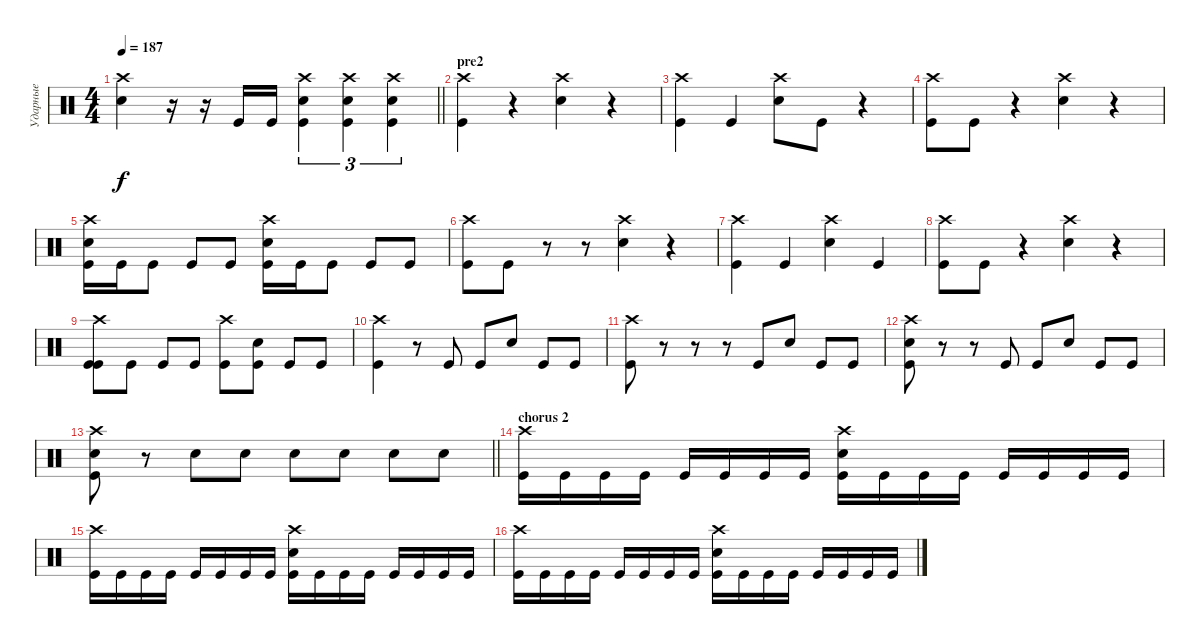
\track ("Ударные" "Ударные") {instrument percussion}
\staff {score}
\articulation defaults
\ts (4 4)
\tempo 187
\clef neutral
\barLineRight lightlight
\ks c
("Crash high (hit)" "Electric Snare (hit)").4{dy f} r.16 r.16 "Kick (hit)".16 "Kick (hit)".16 ("Crash high (hit)" "Electric Snare (hit)" "Kick (hit)").4{tu (3 2)} ("Crash high (hit)" "Electric Snare (hit)" "Kick (hit)").4{tu (3 2)} ("Crash high (hit)" "Electric Snare (hit)" "Kick (hit)").4{tu (3 2)} |
\section ("" "pre2")
("Crash high (hit)" "Kick (hit)").4 r.4 ("Crash high (hit)" "Electric Snare (hit)").4 r.4 |
("Crash high (hit)" "Kick (hit)").4 "Kick (hit)".4 ("Crash high (hit)" "Electric Snare (hit)").8 "Kick (hit)".8 r.4 |
("Crash high (hit)" "Kick (hit)").8 "Kick (hit)".8 r.4 ("Crash high (hit)" "Electric Snare (hit)").4 r.4 |
("Crash high (hit)" "Electric Snare (hit)" "Kick (hit)").16 "Kick (hit)".16 "Kick (hit)".8 "Kick (hit)".8 "Kick (hit)".8 ("Crash high (hit)" "Electric Snare (hit)" "Kick (hit)").16 "Kick (hit)".16 "Kick (hit)".8 "Kick (hit)".8 "Kick (hit)".8 |
("Crash high (hit)" "Kick (hit)").8 "Kick (hit)".8 r.8 r.8 ("Crash high (hit)" "Electric Snare (hit)").4 r.4 |
("Crash high (hit)" "Kick (hit)").4 "Kick (hit)".4 ("Crash high (hit)" "Electric Snare (hit)").4 "Kick (hit)".4 |
("Crash high (hit)" "Kick (hit)").8 "Kick (hit)".8 r.4 ("Crash high (hit)" "Electric Snare (hit)").4 r.4 |
("Crash high (hit)" "Kick (hit)" "Kick (hit)").8 "Kick (hit)".8 "Kick (hit)".8 "Kick (hit)".8 ("Crash high (hit)" "Kick (hit)").8 ("Electric Snare (hit)" "Kick (hit)").8 "Kick (hit)".8 "Kick (hit)".8 |
("Crash high (hit)" "Kick (hit)").4 r.8 "Kick (hit)".8 "Kick (hit)".8 "Electric Snare (hit)".8 "Kick (hit)".8 "Kick (hit)".8 |
("Crash high (hit)" "Kick (hit)").8 r.8 r.8 r.8 "Kick (hit)".8 "Electric Snare (hit)".8 "Kick (hit)".8 "Kick (hit)".8 |
("Crash high (hit)" "Electric Snare (hit)" "Kick (hit)").8 r.8 r.8 "Kick (hit)".8 "Kick (hit)".8 "Electric Snare (hit)".8 "Kick (hit)".8 "Kick (hit)".8 |
\barLineRight lightlight
("Crash high (hit)" "Electric Snare (hit)" "Kick (hit)").8 r.8 "Electric Snare (hit)".8 "Electric Snare (hit)".8 "Electric Snare (hit)".8 "Electric Snare (hit)".8 "Electric Snare (hit)".8 "Electric Snare (hit)".8 |
\section ("" "chorus 2")
("Crash high (hit)" "Kick (hit)").16 "Kick (hit)".16 "Kick (hit)".16 "Kick (hit)".16 "Kick (hit)".16 "Kick (hit)".16 "Kick (hit)".16 "Kick (hit)".16 ("Crash high (hit)" "Electric Snare (hit)" "Kick (hit)").16 "Kick (hit)".16 "Kick (hit)".16 "Kick (hit)".16 "Kick (hit)".16 "Kick (hit)".16 "Kick (hit)".16 "Kick (hit)".16 |
("Crash high (hit)" "Kick (hit)").16 "Kick (hit)".16 "Kick (hit)".16 "Kick (hit)".16 "Kick (hit)".16 "Kick (hit)".16 "Kick (hit)".16 "Kick (hit)".16 ("Crash high (hit)" "Electric Snare (hit)" "Kick (hit)").16 "Kick (hit)".16 "Kick (hit)".16 "Kick (hit)".16 "Kick (hit)".16 "Kick (hit)".16 "Kick (hit)".16 "Kick (hit)".16 |
("Crash high (hit)" "Kick (hit)").16 "Kick (hit)".16 "Kick (hit)".16 "Kick (hit)".16 "Kick (hit)".16 "Kick (hit)".16 "Kick (hit)".16 "Kick (hit)".16 ("Crash high (hit)" "Electric Snare (hit)" "Kick (hit)").16 "Kick (hit)".16 "Kick (hit)".16 "Kick (hit)".16 "Kick (hit)".16 "Kick (hit)".16 "Kick (hit)".16 "Kick (hit)".16
